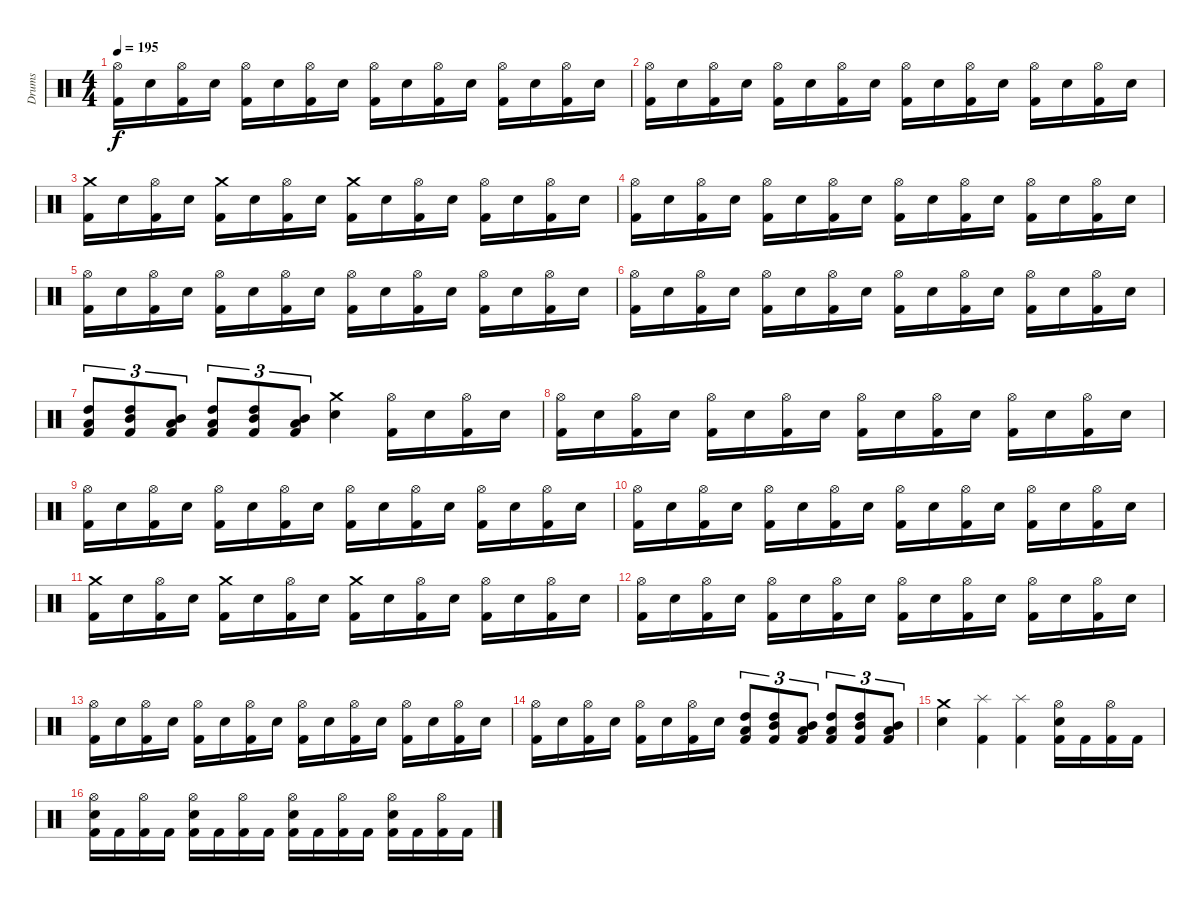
\track ("Drums" "Drums") {instrument percussion}
\staff {score}
\articulation defaults
\ts (4 4)
\tempo 195
\clef neutral
\ks c
("Hi-Hat (open)" "Kick (hit) 2").16{dy f} "Electric Snare (hit)".16 ("Hi-Hat (open)" "Kick (hit) 2").16 "Electric Snare (hit)".16 ("Hi-Hat (open)" "Kick (hit) 2").16 "Electric Snare (hit)".16 ("Hi-Hat (open)" "Kick (hit) 2").16 "Electric Snare (hit)".16 ("Hi-Hat (open)" "Kick (hit) 2").16 "Electric Snare (hit)".16 ("Hi-Hat (open)" "Kick (hit) 2").16 "Electric Snare (hit)".16 ("Hi-Hat (open)" "Kick (hit) 2").16 "Electric Snare (hit)".16 ("Hi-Hat (open)" "Kick (hit) 2").16 "Electric Snare (hit)".16 |
("Hi-Hat (open)" "Kick (hit) 2").16 "Electric Snare (hit)".16 ("Hi-Hat (open)" "Kick (hit) 2").16 "Electric Snare (hit)".16 ("Hi-Hat (open)" "Kick (hit) 2").16 "Electric Snare (hit)".16 ("Hi-Hat (open)" "Kick (hit) 2").16 "Electric Snare (hit)".16 ("Hi-Hat (open)" "Kick (hit) 2").16 "Electric Snare (hit)".16 ("Hi-Hat (open)" "Kick (hit) 2").16 "Electric Snare (hit)".16 ("Hi-Hat (open)" "Kick (hit) 2").16 "Electric Snare (hit)".16 ("Hi-Hat (open)" "Kick (hit) 2").16 "Electric Snare (hit)".16 |
("Crash medium (hit)" "Kick (hit) 2").16 "Electric Snare (hit)".16 ("Hi-Hat (open)" "Kick (hit) 2").16 "Electric Snare (hit)".16 ("Crash medium (hit)" "Kick (hit) 2").16 "Electric Snare (hit)".16 ("Hi-Hat (open)" "Kick (hit) 2").16 "Electric Snare (hit)".16 ("Crash medium (hit)" "Kick (hit) 2").16 "Electric Snare (hit)".16 ("Hi-Hat (open)" "Kick (hit) 2").16 "Electric Snare (hit)".16 ("Hi-Hat (open)" "Kick (hit) 2").16 "Electric Snare (hit)".16 ("Hi-Hat (open)" "Kick (hit) 2").16 "Electric Snare (hit)".16 |
("Hi-Hat (open)" "Kick (hit) 2").16 "Electric Snare (hit)".16 ("Hi-Hat (open)" "Kick (hit) 2").16 "Electric Snare (hit)".16 ("Hi-Hat (open)" "Kick (hit) 2").16 "Electric Snare (hit)".16 ("Hi-Hat (open)" "Kick (hit) 2").16 "Electric Snare (hit)".16 ("Hi-Hat (open)" "Kick (hit) 2").16 "Electric Snare (hit)".16 ("Hi-Hat (open)" "Kick (hit) 2").16 "Electric Snare (hit)".16 ("Hi-Hat (open)" "Kick (hit) 2").16 "Electric Snare (hit)".16 ("Hi-Hat (open)" "Kick (hit) 2").16 "Electric Snare (hit)".16 |
("Hi-Hat (open)" "Kick (hit) 2").16 "Electric Snare (hit)".16 ("Hi-Hat (open)" "Kick (hit) 2").16 "Electric Snare (hit)".16 ("Hi-Hat (open)" "Kick (hit) 2").16 "Electric Snare (hit)".16 ("Hi-Hat (open)" "Kick (hit) 2").16 "Electric Snare (hit)".16 ("Hi-Hat (open)" "Kick (hit) 2").16 "Electric Snare (hit)".16 ("Hi-Hat (open)" "Kick (hit) 2").16 "Electric Snare (hit)".16 ("Hi-Hat (open)" "Kick (hit) 2").16 "Electric Snare (hit)".16 ("Hi-Hat (open)" "Kick (hit) 2").16 "Electric Snare (hit)".16 |
("Hi-Hat (open)" "Kick (hit) 2").16 "Electric Snare (hit)".16 ("Hi-Hat (open)" "Kick (hit) 2").16 "Electric Snare (hit)".16 ("Hi-Hat (open)" "Kick (hit) 2").16 "Electric Snare (hit)".16 ("Hi-Hat (open)" "Kick (hit) 2").16 "Electric Snare (hit)".16 ("Hi-Hat (open)" "Kick (hit) 2").16 "Electric Snare (hit)".16 ("Hi-Hat (open)" "Kick (hit) 2").16 "Electric Snare (hit)".16 ("Hi-Hat (open)" "Kick (hit) 2").16 "Electric Snare (hit)".16 ("Hi-Hat (open)" "Kick (hit) 2").16 "Electric Snare (hit)".16 |
("High Tom (hit)" "Low Tom (hit)" "Kick (hit) 2").8{tu (3 2)} ("Mid Tom (hit)" "High Tom (hit)" "Kick (hit) 2").8{tu (3 2)} ("Low Tom (hit)" "Mid Tom (hit)" "Kick (hit) 2").8{tu (3 2)} ("High Tom (hit)" "Low Tom (hit)" "Kick (hit) 2").8{tu (3 2)} ("Mid Tom (hit)" "High Tom (hit)" "Kick (hit) 2").8{tu (3 2)} ("Low Tom (hit)" "Mid Tom (hit)" "Kick (hit) 2").8{tu (3 2)} ("Crash medium (hit)" "Electric Snare (hit)").4 ("Hi-Hat (open)" "Kick (hit) 2").16 "Electric Snare (hit)".16 ("Hi-Hat (open)" "Kick (hit) 2").16 "Electric Snare (hit)".16 |
("Hi-Hat (open)" "Kick (hit) 2").16 "Electric Snare (hit)".16 ("Hi-Hat (open)" "Kick (hit) 2").16 "Electric Snare (hit)".16 ("Hi-Hat (open)" "Kick (hit) 2").16 "Electric Snare (hit)".16 ("Hi-Hat (open)" "Kick (hit) 2").16 "Electric Snare (hit)".16 ("Hi-Hat (open)" "Kick (hit) 2").16 "Electric Snare (hit)".16 ("Hi-Hat (open)" "Kick (hit) 2").16 "Electric Snare (hit)".16 ("Hi-Hat (open)" "Kick (hit) 2").16 "Electric Snare (hit)".16 ("Hi-Hat (open)" "Kick (hit) 2").16 "Electric Snare (hit)".16 |
("Hi-Hat (open)" "Kick (hit) 2").16 "Electric Snare (hit)".16 ("Hi-Hat (open)" "Kick (hit) 2").16 "Electric Snare (hit)".16 ("Hi-Hat (open)" "Kick (hit) 2").16 "Electric Snare (hit)".16 ("Hi-Hat (open)" "Kick (hit) 2").16 "Electric Snare (hit)".16 ("Hi-Hat (open)" "Kick (hit) 2").16 "Electric Snare (hit)".16 ("Hi-Hat (open)" "Kick (hit) 2").16 "Electric Snare (hit)".16 ("Hi-Hat (open)" "Kick (hit) 2").16 "Electric Snare (hit)".16 ("Hi-Hat (open)" "Kick (hit) 2").16 "Electric Snare (hit)".16 |
("Hi-Hat (open)" "Kick (hit) 2").16 "Electric Snare (hit)".16 ("Hi-Hat (open)" "Kick (hit) 2").16 "Electric Snare (hit)".16 ("Hi-Hat (open)" "Kick (hit) 2").16 "Electric Snare (hit)".16 ("Hi-Hat (open)" "Kick (hit) 2").16 "Electric Snare (hit)".16 ("Hi-Hat (open)" "Kick (hit) 2").16 "Electric Snare (hit)".16 ("Hi-Hat (open)" "Kick (hit) 2").16 "Electric Snare (hit)".16 ("Hi-Hat (open)" "Kick (hit) 2").16 "Electric Snare (hit)".16 ("Hi-Hat (open)" "Kick (hit) 2").16 "Electric Snare (hit)".16 |
("Crash medium (hit)" "Kick (hit) 2").16 "Electric Snare (hit)".16 ("Hi-Hat (open)" "Kick (hit) 2").16 "Electric Snare (hit)".16 ("Crash medium (hit)" "Kick (hit) 2").16 "Electric Snare (hit)".16 ("Hi-Hat (open)" "Kick (hit) 2").16 "Electric Snare (hit)".16 ("Crash medium (hit)" "Kick (hit) 2").16 "Electric Snare (hit)".16 ("Hi-Hat (open)" "Kick (hit) 2").16 "Electric Snare (hit)".16 ("Hi-Hat (open)" "Kick (hit) 2").16 "Electric Snare (hit)".16 ("Hi-Hat (open)" "Kick (hit) 2").16 "Electric Snare (hit)".16 |
("Hi-Hat (open)" "Kick (hit) 2").16 "Electric Snare (hit)".16 ("Hi-Hat (open)" "Kick (hit) 2").16 "Electric Snare (hit)".16 ("Hi-Hat (open)" "Kick (hit) 2").16 "Electric Snare (hit)".16 ("Hi-Hat (open)" "Kick (hit) 2").16 "Electric Snare (hit)".16 ("Hi-Hat (open)" "Kick (hit) 2").16 "Electric Snare (hit)".16 ("Hi-Hat (open)" "Kick (hit) 2").16 "Electric Snare (hit)".16 ("Hi-Hat (open)" "Kick (hit) 2").16 "Electric Snare (hit)".16 ("Hi-Hat (open)" "Kick (hit) 2").16 "Electric Snare (hit)".16 |
("Hi-Hat (open)" "Kick (hit) 2").16 "Electric Snare (hit)".16 ("Hi-Hat (open)" "Kick (hit) 2").16 "Electric Snare (hit)".16 ("Hi-Hat (open)" "Kick (hit) 2").16 "Electric Snare (hit)".16 ("Hi-Hat (open)" "Kick (hit) 2").16 "Electric Snare (hit)".16 ("Hi-Hat (open)" "Kick (hit) 2").16 "Electric Snare (hit)".16 ("Hi-Hat (open)" "Kick (hit) 2").16 "Electric Snare (hit)".16 ("Hi-Hat (open)" "Kick (hit) 2").16 "Electric Snare (hit)".16 ("Hi-Hat (open)" "Kick (hit) 2").16 "Electric Snare (hit)".16 |
("Hi-Hat (open)" "Kick (hit) 2").16 "Electric Snare (hit)".16 ("Hi-Hat (open)" "Kick (hit) 2").16 "Electric Snare (hit)".16 ("Hi-Hat (open)" "Kick (hit) 2").16 "Electric Snare (hit)".16 ("Hi-Hat (open)" "Kick (hit) 2").16 "Electric Snare (hit)".16 ("High Tom (hit)" "Low Tom (hit)" "Kick (hit) 2").8{tu (3 2)} ("Mid Tom (hit)" "High Tom (hit)" "Kick (hit) 2").8{tu (3 2)} ("Low Tom (hit)" "Mid Tom (hit)" "Kick (hit) 2").8{tu (3 2)} ("High Tom (hit)" "Low Tom (hit)" "Kick (hit) 2").8{tu (3 2)} ("Mid Tom (hit)" "High Tom (hit)" "Kick (hit) 2").8{tu (3 2)} ("Low Tom (hit)" "Mid Tom (hit)" "Kick (hit) 2").8{tu (3 2)} |
("Crash medium (hit)" "Electric Snare (hit)").4 ("Splash (hit)" "Kick (hit) 2").4 ("Splash (hit)" "Kick (hit) 2").4 ("Hi-Hat (open)" "Electric Snare (hit)" "Kick (hit) 2").16 "Kick (hit) 2".16 ("Hi-Hat (open)" "Kick (hit) 2").16 "Kick (hit) 2".16 |
("Hi-Hat (open)" "Electric Snare (hit)" "Kick (hit) 2").16 "Kick (hit) 2".16 ("Hi-Hat (open)" "Kick (hit) 2").16 "Kick (hit) 2".16 ("Hi-Hat (open)" "Electric Snare (hit)" "Kick (hit) 2").16 "Kick (hit) 2".16 ("Hi-Hat (open)" "Kick (hit) 2").16 "Kick (hit) 2".16 ("Hi-Hat (open)" "Electric Snare (hit)" "Kick (hit) 2").16 "Kick (hit) 2".16 ("Hi-Hat (open)" "Kick (hit) 2").16 "Kick (hit) 2".16 ("Hi-Hat (open)" "Electric Snare (hit)" "Kick (hit) 2").16 "Kick (hit) 2".16 ("Hi-Hat (open)" "Kick (hit) 2").16 "Kick (hit) 2".16
